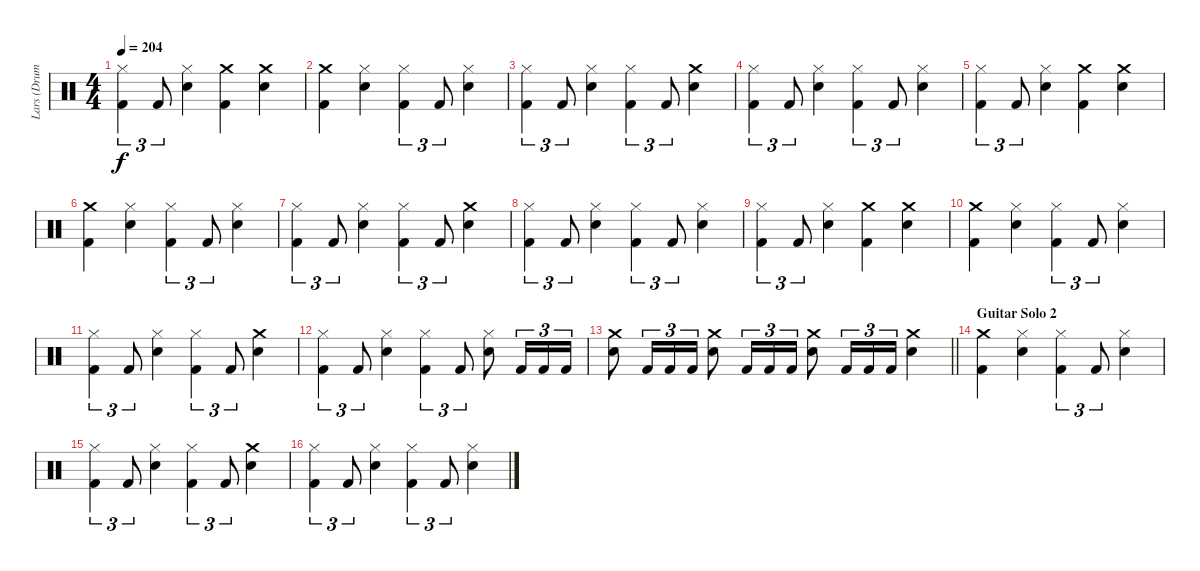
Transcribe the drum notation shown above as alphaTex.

\track ("Lars (Drums)" "Lars (Drum") {instrument percussion}
\staff {score}
\articulation defaults
\ts (4 4)
\tempo 204
\clef neutral
\ks c
("Hi-Hat (closed)" "Kick (hit) 2").4{tu (3 2) dy f} "Kick (hit) 2".8{tu (3 2)} ("Snare (hit) 2" "Hi-Hat (closed)").4 ("Crash medium (hit)" "Kick (hit) 2").4 ("Crash medium (hit)" "Snare (hit) 2").4 |
("Kick (hit) 2" "Crash medium (hit)").4 ("Hi-Hat (closed)" "Snare (hit) 2").4 ("Hi-Hat (closed)" "Kick (hit) 2").4{tu (3 2)} "Kick (hit) 2".8{tu (3 2)} ("Snare (hit) 2" "Hi-Hat (closed)").4 |
("Hi-Hat (closed)" "Kick (hit) 2").4{tu (3 2)} "Kick (hit) 2".8{tu (3 2)} ("Snare (hit) 2" "Hi-Hat (closed)").4 ("Hi-Hat (closed)" "Kick (hit) 2").4{tu (3 2)} "Kick (hit) 2".8{tu (3 2)} ("Crash medium (hit)" "Snare (hit) 2").4 |
("Hi-Hat (closed)" "Kick (hit) 2").4{tu (3 2)} "Kick (hit) 2".8{tu (3 2)} ("Snare (hit) 2" "Hi-Hat (closed)").4 ("Hi-Hat (closed)" "Kick (hit) 2").4{tu (3 2)} "Kick (hit) 2".8{tu (3 2)} ("Snare (hit) 2" "Hi-Hat (closed)").4 |
("Hi-Hat (closed)" "Kick (hit) 2").4{tu (3 2)} "Kick (hit) 2".8{tu (3 2)} ("Snare (hit) 2" "Hi-Hat (closed)").4 ("Crash medium (hit)" "Kick (hit) 2").4 ("Crash medium (hit)" "Snare (hit) 2").4 |
("Kick (hit) 2" "Crash medium (hit)").4 ("Hi-Hat (closed)" "Snare (hit) 2").4 ("Hi-Hat (closed)" "Kick (hit) 2").4{tu (3 2)} "Kick (hit) 2".8{tu (3 2)} ("Snare (hit) 2" "Hi-Hat (closed)").4 |
("Hi-Hat (closed)" "Kick (hit) 2").4{tu (3 2)} "Kick (hit) 2".8{tu (3 2)} ("Snare (hit) 2" "Hi-Hat (closed)").4 ("Hi-Hat (closed)" "Kick (hit) 2").4{tu (3 2)} "Kick (hit) 2".8{tu (3 2)} ("Crash medium (hit)" "Snare (hit) 2").4 |
("Hi-Hat (closed)" "Kick (hit) 2").4{tu (3 2)} "Kick (hit) 2".8{tu (3 2)} ("Snare (hit) 2" "Hi-Hat (closed)").4 ("Hi-Hat (closed)" "Kick (hit) 2").4{tu (3 2)} "Kick (hit) 2".8{tu (3 2)} ("Snare (hit) 2" "Hi-Hat (closed)").4 |
("Hi-Hat (closed)" "Kick (hit) 2").4{tu (3 2)} "Kick (hit) 2".8{tu (3 2)} ("Snare (hit) 2" "Hi-Hat (closed)").4 ("Crash medium (hit)" "Kick (hit) 2").4 ("Crash medium (hit)" "Snare (hit) 2").4 |
("Kick (hit) 2" "Crash medium (hit)").4 ("Hi-Hat (closed)" "Snare (hit) 2").4 ("Hi-Hat (closed)" "Kick (hit) 2").4{tu (3 2)} "Kick (hit) 2".8{tu (3 2)} ("Snare (hit) 2" "Hi-Hat (closed)").4 |
("Hi-Hat (closed)" "Kick (hit) 2").4{tu (3 2)} "Kick (hit) 2".8{tu (3 2)} ("Snare (hit) 2" "Hi-Hat (closed)").4 ("Hi-Hat (closed)" "Kick (hit) 2").4{tu (3 2)} "Kick (hit) 2".8{tu (3 2)} ("Crash medium (hit)" "Snare (hit) 2").4 |
("Hi-Hat (closed)" "Kick (hit) 2").4{tu (3 2)} "Kick (hit) 2".8{tu (3 2)} ("Snare (hit) 2" "Hi-Hat (closed)").4 ("Hi-Hat (closed)" "Kick (hit) 2").4{tu (3 2)} "Kick (hit) 2".8{tu (3 2)} ("Snare (hit) 2" "Hi-Hat (closed)").8 "Kick (hit) 2".16{tu (3 2)} "Kick (hit) 2".16{tu (3 2)} "Kick (hit) 2".16{tu (3 2)} |
\barLineRight lightlight
("Crash medium (hit)" "Snare (hit) 2").8 "Kick (hit) 2".16{tu (3 2)} "Kick (hit) 2".16{tu (3 2)} "Kick (hit) 2".16{tu (3 2)} ("Crash medium (hit)" "Snare (hit) 2").8 "Kick (hit) 2".16{tu (3 2)} "Kick (hit) 2".16{tu (3 2)} "Kick (hit) 2".16{tu (3 2)} ("Crash medium (hit)" "Snare (hit) 2").8 "Kick (hit) 2".16{tu (3 2)} "Kick (hit) 2".16{tu (3 2)} "Kick (hit) 2".16{tu (3 2)} ("Snare (hit) 2" "Crash medium (hit)").4 |
\section ("" "Guitar Solo 2")
("Kick (hit) 2" "Crash medium (hit)").4 ("Hi-Hat (closed)" "Snare (hit) 2").4 ("Hi-Hat (closed)" "Kick (hit) 2").4{tu (3 2)} "Kick (hit) 2".8{tu (3 2)} ("Snare (hit) 2" "Hi-Hat (closed)").4 |
("Hi-Hat (closed)" "Kick (hit) 2").4{tu (3 2)} "Kick (hit) 2".8{tu (3 2)} ("Snare (hit) 2" "Hi-Hat (closed)").4 ("Hi-Hat (closed)" "Kick (hit) 2").4{tu (3 2)} "Kick (hit) 2".8{tu (3 2)} ("Crash medium (hit)" "Snare (hit) 2").4 |
("Hi-Hat (closed)" "Kick (hit) 2").4{tu (3 2)} "Kick (hit) 2".8{tu (3 2)} ("Snare (hit) 2" "Hi-Hat (closed)").4 ("Hi-Hat (closed)" "Kick (hit) 2").4{tu (3 2)} "Kick (hit) 2".8{tu (3 2)} ("Snare (hit) 2" "Hi-Hat (closed)").4
